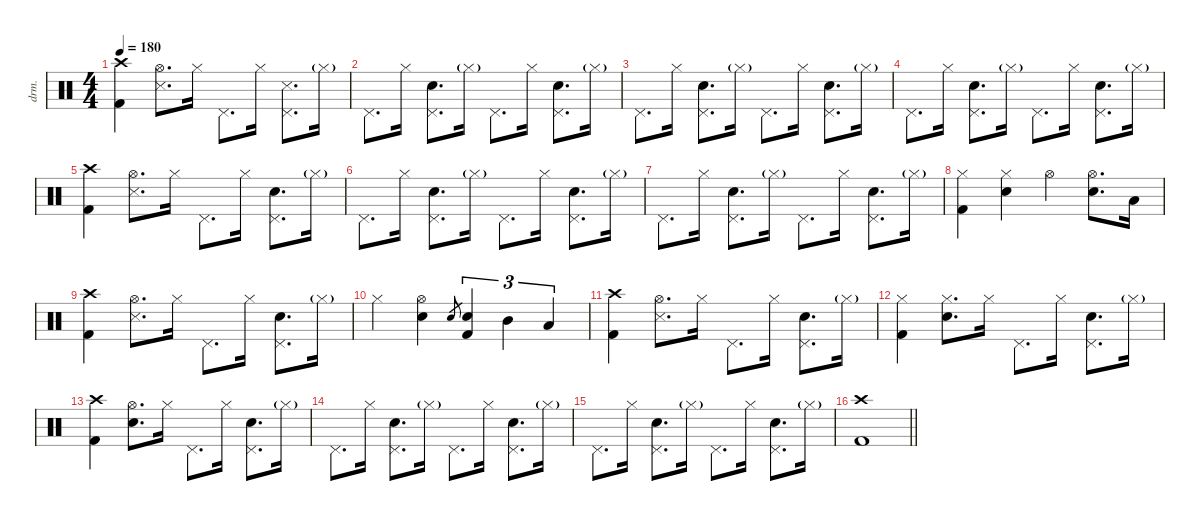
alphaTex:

\defaultSystemsLayout 4
\hideDynamics
\bracketExtendMode nobrackets
\otherSystemsTrackNameOrientation horizontal
\track ("Drums" "drm.") {instrument percussion}
\staff {score}
\articulation defaults
\ts (4 4)
\tempo 180
\clef neutral
\ks c
("Crash high (hit)" "Kick (hit) 2").4{dy f} ("Hi-Hat (open)" "Snare (side stick) 3").8{d} "Hi-Hat (closed)".16 "Pedal Hi-Hat (hit)".8{d} "Hi-Hat (closed)".16 ("Pedal Hi-Hat (hit)" "Snare (side stick) 3").8{d} "Hi-Hat (closed)"{g}.16{dy mf} |
"Pedal Hi-Hat (hit)".8{d dy f} "Hi-Hat (closed)".16 ("Pedal Hi-Hat (hit)" "Snare (hit) 2").8{d} "Hi-Hat (closed)"{g}.16{dy mf} "Pedal Hi-Hat (hit)".8{d dy f} "Hi-Hat (closed)".16 ("Pedal Hi-Hat (hit)" "Snare (hit) 2").8{d} "Hi-Hat (closed)"{g}.16{dy mf} |
"Pedal Hi-Hat (hit)".8{d dy f} "Hi-Hat (closed)".16 ("Pedal Hi-Hat (hit)" "Snare (hit) 2").8{d} "Hi-Hat (closed)"{g}.16{dy mf} "Pedal Hi-Hat (hit)".8{d dy f} "Hi-Hat (closed)".16 ("Pedal Hi-Hat (hit)" "Snare (hit) 2").8{d} "Hi-Hat (closed)"{g}.16{dy mf} |
"Pedal Hi-Hat (hit)".8{d dy f} "Hi-Hat (closed)".16 ("Pedal Hi-Hat (hit)" "Snare (hit) 2").8{d} "Hi-Hat (closed)"{g}.16{dy mf} "Pedal Hi-Hat (hit)".8{d dy f} "Hi-Hat (closed)".16 ("Pedal Hi-Hat (hit)" "Snare (hit) 2").8{d} "Hi-Hat (closed)"{g}.16{dy mf} |
("Crash high (hit)" "Kick (hit) 2").4{dy f} ("Hi-Hat (open)" "Snare (side stick) 3").8{d} "Hi-Hat (closed)".16 "Pedal Hi-Hat (hit)".8{d} "Hi-Hat (closed)".16 ("Pedal Hi-Hat (hit)" "Snare (hit) 2").8{d} "Hi-Hat (closed)"{g}.16{dy mf} |
"Pedal Hi-Hat (hit)".8{d dy f} "Hi-Hat (closed)".16 ("Pedal Hi-Hat (hit)" "Snare (hit) 2").8{d} "Hi-Hat (closed)"{g}.16{dy mf} "Pedal Hi-Hat (hit)".8{d dy f} "Hi-Hat (closed)".16 ("Pedal Hi-Hat (hit)" "Snare (hit) 2").8{d} "Hi-Hat (closed)"{g}.16{dy mf} |
"Pedal Hi-Hat (hit)".8{d dy f} "Hi-Hat (closed)".16 ("Pedal Hi-Hat (hit)" "Snare (hit) 2").8{d} "Hi-Hat (closed)"{g}.16{dy mf} "Pedal Hi-Hat (hit)".8{d dy f} "Hi-Hat (closed)".16 ("Pedal Hi-Hat (hit)" "Snare (hit) 2").8{d} "Hi-Hat (closed)"{g}.16{dy mf} |
("Hi-Hat (closed)" "Kick (hit) 2").4{dy f} ("Hi-Hat (closed)" "Snare (hit) 2").4 "Hi-Hat (open)".4 ("Hi-Hat (open)" "Snare (hit) 2").8{d} "Low Tom (hit)".16 |
("Crash high (hit)" "Kick (hit) 2").4 ("Hi-Hat (open)" "Snare (side stick) 3").8{d} "Hi-Hat (closed)".16 "Pedal Hi-Hat (hit)".8{d} "Hi-Hat (closed)".16 ("Pedal Hi-Hat (hit)" "Snare (hit) 2").8{d} "Hi-Hat (closed)"{g}.16{dy mf} |
"Hi-Hat (closed)".4{dy f} ("Hi-Hat (open)" "Snare (hit) 2").4 "Snare (hit) 2".8{gr dy mf} ("Snare (hit) 2" "Kick (hit) 2").4{tu (3 2) dy f} "Mid Tom (hit)".4{tu (3 2)} "Low Tom (hit)".4{tu (3 2)} |
("Crash high (hit)" "Kick (hit) 2").4 ("Hi-Hat (open)" "Snare (side stick) 3").8{d} "Hi-Hat (closed)".16 "Pedal Hi-Hat (hit)".8{d} "Hi-Hat (closed)".16 ("Pedal Hi-Hat (hit)" "Snare (hit) 2").8{d} "Hi-Hat (closed)"{g}.16{dy mf} |
("Hi-Hat (closed)" "Kick (hit) 2").4{dy f} ("Hi-Hat (closed)" "Snare (hit) 2").8{d} "Hi-Hat (closed)".16 "Pedal Hi-Hat (hit)".8{d} "Hi-Hat (closed)".16 ("Pedal Hi-Hat (hit)" "Snare (hit) 2").8{d} "Hi-Hat (closed)"{g}.16{dy mf} |
("Crash high (hit)" "Kick (hit) 2").4{dy f} ("Hi-Hat (open)" "Snare (hit) 2").8{d} "Hi-Hat (closed)".16 "Pedal Hi-Hat (hit)".8{d} "Hi-Hat (closed)".16 ("Pedal Hi-Hat (hit)" "Snare (hit) 2").8{d} "Hi-Hat (closed)"{g}.16{dy mf} |
"Pedal Hi-Hat (hit)".8{d dy f} "Hi-Hat (closed)".16 ("Pedal Hi-Hat (hit)" "Snare (hit) 2").8{d} "Hi-Hat (closed)"{g}.16{dy mf} "Pedal Hi-Hat (hit)".8{d dy f} "Hi-Hat (closed)".16 ("Pedal Hi-Hat (hit)" "Snare (hit) 2").8{d} "Hi-Hat (closed)"{g}.16{dy mf} |
"Pedal Hi-Hat (hit)".8{d dy f} "Hi-Hat (closed)".16 ("Pedal Hi-Hat (hit)" "Snare (hit) 2").8{d} "Hi-Hat (closed)"{g}.16{dy mf} "Pedal Hi-Hat (hit)".8{d dy f} "Hi-Hat (closed)".16 ("Pedal Hi-Hat (hit)" "Snare (hit) 2").8{d} "Hi-Hat (closed)"{g}.16{dy mf} |
\barLineRight lightlight
("Crash high (hit)" "Kick (hit) 2").1
